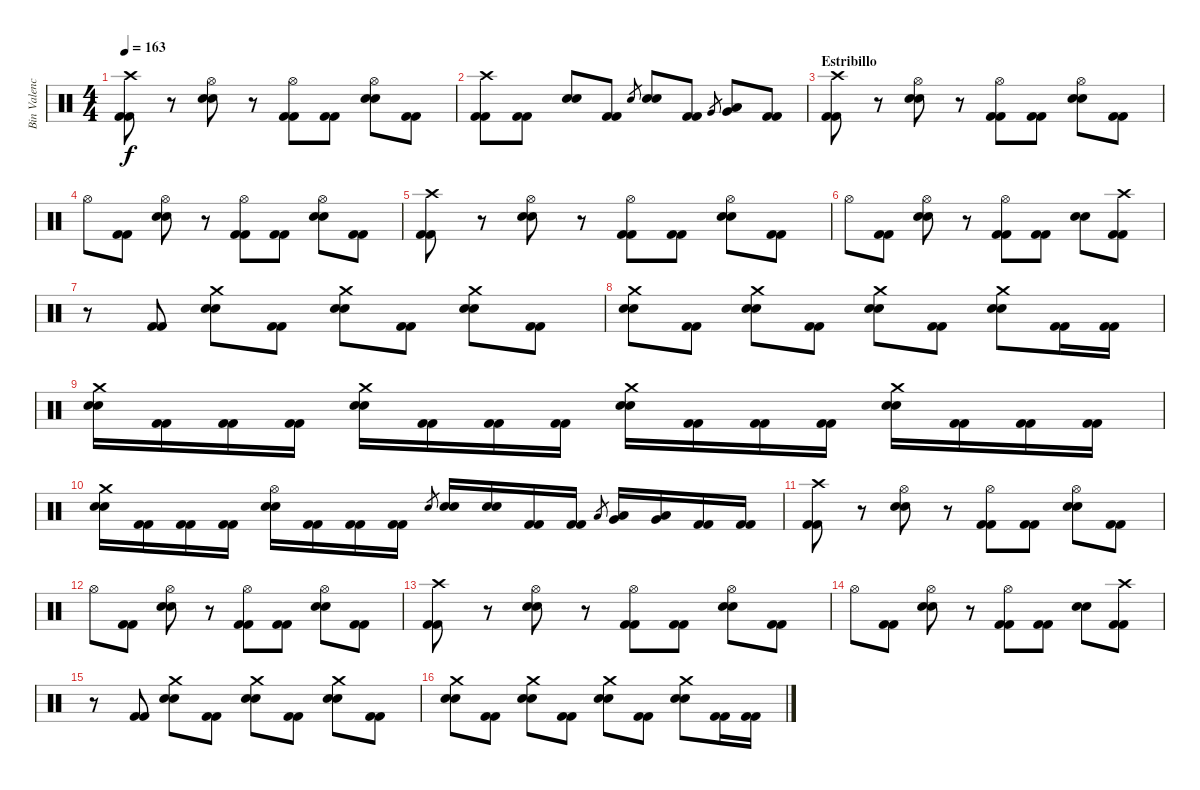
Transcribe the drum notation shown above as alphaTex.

\track ("Bin Valencia" "Bin Valenc") {instrument percussion}
\staff {score}
\articulation defaults
\ts (4 4)
\tempo 163
\clef neutral
\ks c
("Crash high (hit)" "Kick (hit) 2" "Kick (hit) 2").8{dy f} r.8 ("Hi-Hat (open)" "Snare (hit) 2" "Snare (hit) 2").8 r.8 ("Hi-Hat (open)" "Kick (hit) 2" "Kick (hit) 2").8 ("Kick (hit) 2" "Kick (hit) 2").8 ("Hi-Hat (open)" "Snare (hit) 2" "Snare (hit) 2").8 ("Kick (hit) 2" "Kick (hit) 2").8 |
("Crash high (hit)" "Kick (hit) 2" "Kick (hit) 2").8 ("Kick (hit) 2" "Kick (hit) 2").8 ("Snare (hit) 2" "Snare (hit) 2").8 ("Kick (hit) 2" "Kick (hit) 2").8 "Snare (hit) 2".8{gr} ("Snare (hit) 2" "Snare (hit) 2").8 ("Kick (hit) 2" "Kick (hit) 2").8 "Very Low Tom (hit)".8{gr} ("Low Floor Tom (hit)" "Very Low Tom (hit)").8 ("Kick (hit) 2" "Kick (hit) 2").8 |
\section ("" "Estribillo")
("Crash high (hit)" "Kick (hit) 2" "Kick (hit) 2").8 r.8 ("Hi-Hat (open)" "Snare (hit) 2" "Snare (hit) 2").8 r.8 ("Hi-Hat (open)" "Kick (hit) 2" "Kick (hit) 2").8 ("Kick (hit) 2" "Kick (hit) 2").8 ("Hi-Hat (open)" "Snare (hit) 2" "Snare (hit) 2").8 ("Kick (hit) 2" "Kick (hit) 2").8 |
"Hi-Hat (open)".8 ("Kick (hit) 2" "Kick (hit) 2").8 ("Hi-Hat (open)" "Snare (hit) 2" "Snare (hit) 2").8 r.8 ("Hi-Hat (open)" "Kick (hit) 2" "Kick (hit) 2").8 ("Kick (hit) 2" "Kick (hit) 2").8 ("Hi-Hat (open)" "Snare (hit) 2" "Snare (hit) 2").8 ("Kick (hit) 2" "Kick (hit) 2").8 |
("Crash high (hit)" "Kick (hit) 2" "Kick (hit) 2").8 r.8 ("Hi-Hat (open)" "Snare (hit) 2" "Snare (hit) 2").8 r.8 ("Hi-Hat (open)" "Kick (hit) 2" "Kick (hit) 2").8 ("Kick (hit) 2" "Kick (hit) 2").8 ("Hi-Hat (open)" "Snare (hit) 2" "Snare (hit) 2").8 ("Kick (hit) 2" "Kick (hit) 2").8 |
"Hi-Hat (open)".8 ("Kick (hit) 2" "Kick (hit) 2").8 ("Hi-Hat (open)" "Snare (hit) 2" "Snare (hit) 2").8 r.8 ("Hi-Hat (open)" "Kick (hit) 2" "Kick (hit) 2").8 ("Kick (hit) 2" "Kick (hit) 2").8 ("Snare (hit) 2" "Snare (hit) 2").8 ("Crash high (hit)" "Kick (hit) 2" "Kick (hit) 2").8 |
r.8 ("Kick (hit) 2" "Kick (hit) 2").8 ("Crash medium (hit)" "Snare (hit) 2" "Snare (hit) 2").8 ("Kick (hit) 2" "Kick (hit) 2").8 ("Crash medium (hit)" "Snare (hit) 2" "Snare (hit) 2").8 ("Kick (hit) 2" "Kick (hit) 2").8 ("Crash medium (hit)" "Snare (hit) 2" "Snare (hit) 2").8 ("Kick (hit) 2" "Kick (hit) 2").8 |
("Crash medium (hit)" "Snare (hit) 2" "Snare (hit) 2").8 ("Kick (hit) 2" "Kick (hit) 2").8 ("Crash medium (hit)" "Snare (hit) 2" "Snare (hit) 2").8 ("Kick (hit) 2" "Kick (hit) 2").8 ("Crash medium (hit)" "Snare (hit) 2" "Snare (hit) 2").8 ("Kick (hit) 2" "Kick (hit) 2").8 ("Crash medium (hit)" "Snare (hit) 2" "Snare (hit) 2").8 ("Kick (hit) 2" "Kick (hit) 2").16 ("Kick (hit) 2" "Kick (hit) 2").16 |
("Crash medium (hit)" "Snare (hit) 2" "Snare (hit) 2").16 ("Kick (hit) 2" "Kick (hit) 2").16 ("Kick (hit) 2" "Kick (hit) 2").16 ("Kick (hit) 2" "Kick (hit) 2").16 ("Crash medium (hit)" "Snare (hit) 2" "Snare (hit) 2").16 ("Kick (hit) 2" "Kick (hit) 2").16 ("Kick (hit) 2" "Kick (hit) 2").16 ("Kick (hit) 2" "Kick (hit) 2").16 ("Crash medium (hit)" "Snare (hit) 2" "Snare (hit) 2").16 ("Kick (hit) 2" "Kick (hit) 2").16 ("Kick (hit) 2" "Kick (hit) 2").16 ("Kick (hit) 2" "Kick (hit) 2").16 ("Crash medium (hit)" "Snare (hit) 2" "Snare (hit) 2").16 ("Kick (hit) 2" "Kick (hit) 2").16 ("Kick (hit) 2" "Kick (hit) 2").16 ("Kick (hit) 2" "Kick (hit) 2").16 |
("Crash medium (hit)" "Snare (hit) 2" "Snare (hit) 2").16 ("Kick (hit) 2" "Kick (hit) 2").16 ("Kick (hit) 2" "Kick (hit) 2").16 ("Kick (hit) 2" "Kick (hit) 2").16 ("Hi-Hat (open)" "Snare (hit) 2" "Snare (hit) 2").16 ("Kick (hit) 2" "Kick (hit) 2").16 ("Kick (hit) 2" "Kick (hit) 2").16 ("Kick (hit) 2" "Kick (hit) 2").16 "Snare (hit) 2".8{gr} ("Snare (hit) 2" "Snare (hit) 2").16 ("Snare (hit) 2" "Snare (hit) 2").16 ("Kick (hit) 2" "Kick (hit) 2").16 ("Kick (hit) 2" "Kick (hit) 2").16 "Low Tom (hit)".8{gr} ("Very Low Tom (hit)" "Low Tom (hit)").16 ("Very Low Tom (hit)" "Low Tom (hit)").16 ("Kick (hit) 2" "Kick (hit) 2").16 ("Kick (hit) 2" "Kick (hit) 2").16 |
("Crash high (hit)" "Kick (hit) 2" "Kick (hit) 2").8 r.8 ("Hi-Hat (open)" "Snare (hit) 2" "Snare (hit) 2").8 r.8 ("Hi-Hat (open)" "Kick (hit) 2" "Kick (hit) 2").8 ("Kick (hit) 2" "Kick (hit) 2").8 ("Hi-Hat (open)" "Snare (hit) 2" "Snare (hit) 2").8 ("Kick (hit) 2" "Kick (hit) 2").8 |
"Hi-Hat (open)".8 ("Kick (hit) 2" "Kick (hit) 2").8 ("Hi-Hat (open)" "Snare (hit) 2" "Snare (hit) 2").8 r.8 ("Hi-Hat (open)" "Kick (hit) 2" "Kick (hit) 2").8 ("Kick (hit) 2" "Kick (hit) 2").8 ("Hi-Hat (open)" "Snare (hit) 2" "Snare (hit) 2").8 ("Kick (hit) 2" "Kick (hit) 2").8 |
("Crash high (hit)" "Kick (hit) 2" "Kick (hit) 2").8 r.8 ("Hi-Hat (open)" "Snare (hit) 2" "Snare (hit) 2").8 r.8 ("Hi-Hat (open)" "Kick (hit) 2" "Kick (hit) 2").8 ("Kick (hit) 2" "Kick (hit) 2").8 ("Hi-Hat (open)" "Snare (hit) 2" "Snare (hit) 2").8 ("Kick (hit) 2" "Kick (hit) 2").8 |
"Hi-Hat (open)".8 ("Kick (hit) 2" "Kick (hit) 2").8 ("Hi-Hat (open)" "Snare (hit) 2" "Snare (hit) 2").8 r.8 ("Hi-Hat (open)" "Kick (hit) 2" "Kick (hit) 2").8 ("Kick (hit) 2" "Kick (hit) 2").8 ("Snare (hit) 2" "Snare (hit) 2").8 ("Crash high (hit)" "Kick (hit) 2" "Kick (hit) 2").8 |
r.8 ("Kick (hit) 2" "Kick (hit) 2").8 ("Crash medium (hit)" "Snare (hit) 2" "Snare (hit) 2").8 ("Kick (hit) 2" "Kick (hit) 2").8 ("Crash medium (hit)" "Snare (hit) 2" "Snare (hit) 2").8 ("Kick (hit) 2" "Kick (hit) 2").8 ("Crash medium (hit)" "Snare (hit) 2" "Snare (hit) 2").8 ("Kick (hit) 2" "Kick (hit) 2").8 |
("Crash medium (hit)" "Snare (hit) 2" "Snare (hit) 2").8 ("Kick (hit) 2" "Kick (hit) 2").8 ("Crash medium (hit)" "Snare (hit) 2" "Snare (hit) 2").8 ("Kick (hit) 2" "Kick (hit) 2").8 ("Crash medium (hit)" "Snare (hit) 2" "Snare (hit) 2").8 ("Kick (hit) 2" "Kick (hit) 2").8 ("Crash medium (hit)" "Snare (hit) 2" "Snare (hit) 2").8 ("Kick (hit) 2" "Kick (hit) 2").16 ("Kick (hit) 2" "Kick (hit) 2").16
